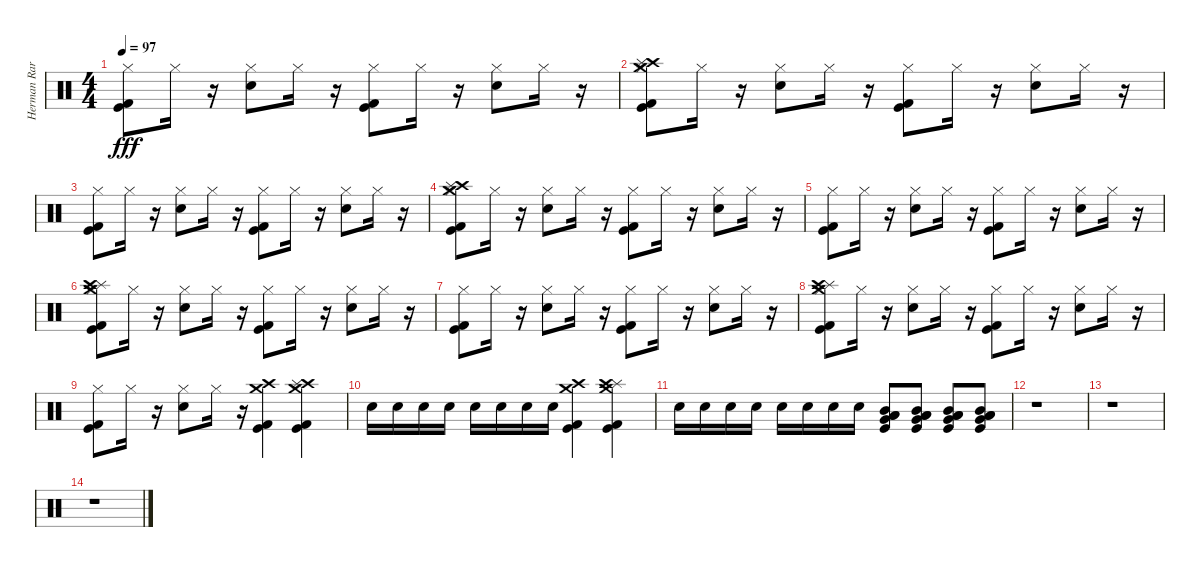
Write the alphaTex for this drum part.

\track ("Herman Rarebell - Drums and Percussion" "Herman Rar") {instrument percussion}
\staff {score}
\articulation defaults
\ts (4 4)
\tempo 97
\clef neutral
\ks c
("Hi-Hat (closed)" "Kick (hit)" "Kick (hit) 2").8{dy fff} "Hi-Hat (closed)".16 r.16 ("Snare (hit) 2" "Hi-Hat (closed)").8 "Hi-Hat (closed)".16 r.16 ("Kick (hit) 2" "Kick (hit)" "Hi-Hat (closed)").8 "Hi-Hat (closed)".16 r.16 ("Snare (hit) 2" "Hi-Hat (closed)").8 "Hi-Hat (closed)".16 r.16 |
("Hi-Hat (closed)" "Crash high (hit)" "Splash (hit)" "Crash medium (hit)" "Kick (hit)" "Kick (hit) 2").8 "Hi-Hat (closed)".16 r.16 ("Snare (hit) 2" "Hi-Hat (closed)").8 "Hi-Hat (closed)".16 r.16 ("Kick (hit) 2" "Kick (hit)" "Hi-Hat (closed)").8 "Hi-Hat (closed)".16 r.16 ("Snare (hit) 2" "Hi-Hat (closed)").8 "Hi-Hat (closed)".16 r.16 |
("Hi-Hat (closed)" "Kick (hit)" "Kick (hit) 2").8 "Hi-Hat (closed)".16 r.16 ("Snare (hit) 2" "Hi-Hat (closed)").8 "Hi-Hat (closed)".16 r.16 ("Kick (hit) 2" "Kick (hit)" "Hi-Hat (closed)").8 "Hi-Hat (closed)".16 r.16 ("Snare (hit) 2" "Hi-Hat (closed)").8 "Hi-Hat (closed)".16 r.16 |
("Hi-Hat (closed)" "Crash high (hit)" "Splash (hit)" "Crash medium (hit)" "Kick (hit)" "Kick (hit) 2").8 "Hi-Hat (closed)".16 r.16 ("Snare (hit) 2" "Hi-Hat (closed)").8 "Hi-Hat (closed)".16 r.16 ("Kick (hit) 2" "Kick (hit)" "Hi-Hat (closed)").8 "Hi-Hat (closed)".16 r.16 ("Snare (hit) 2" "Hi-Hat (closed)").8 "Hi-Hat (closed)".16 r.16 |
("Hi-Hat (closed)" "Kick (hit)" "Kick (hit) 2").8 "Hi-Hat (closed)".16 r.16 ("Snare (hit) 2" "Hi-Hat (closed)").8 "Hi-Hat (closed)".16 r.16 ("Kick (hit) 2" "Kick (hit)" "Hi-Hat (closed)").8 "Hi-Hat (closed)".16 r.16 ("Snare (hit) 2" "Hi-Hat (closed)").8 "Hi-Hat (closed)".16 r.16 |
("Kick (hit) 2" "Kick (hit)" "Crash medium (hit)" "Splash (hit)" "Crash high (hit)" "Hi-Hat (closed)").8 "Hi-Hat (closed)".16 r.16 ("Snare (hit) 2" "Hi-Hat (closed)").8 "Hi-Hat (closed)".16 r.16 ("Kick (hit) 2" "Kick (hit)" "Hi-Hat (closed)").8 "Hi-Hat (closed)".16 r.16 ("Snare (hit) 2" "Hi-Hat (closed)").8 "Hi-Hat (closed)".16 r.16 |
("Hi-Hat (closed)" "Kick (hit)" "Kick (hit) 2").8 "Hi-Hat (closed)".16 r.16 ("Snare (hit) 2" "Hi-Hat (closed)").8 "Hi-Hat (closed)".16 r.16 ("Kick (hit) 2" "Kick (hit)" "Hi-Hat (closed)").8 "Hi-Hat (closed)".16 r.16 ("Snare (hit) 2" "Hi-Hat (closed)").8 "Hi-Hat (closed)".16 r.16 |
("Hi-Hat (closed)" "Kick (hit)" "Kick (hit) 2" "Crash medium (hit)" "Splash (hit)" "Crash high (hit)").8 "Hi-Hat (closed)".16 r.16 ("Snare (hit) 2" "Hi-Hat (closed)").8 "Hi-Hat (closed)".16 r.16 ("Kick (hit) 2" "Kick (hit)" "Hi-Hat (closed)").8 "Hi-Hat (closed)".16 r.16 ("Snare (hit) 2" "Hi-Hat (closed)").8 "Hi-Hat (closed)".16 r.16 |
("Hi-Hat (closed)" "Kick (hit)" "Kick (hit) 2").8 "Hi-Hat (closed)".16 r.16 ("Hi-Hat (closed)" "Snare (hit) 2").8 "Hi-Hat (closed)".16 r.16 ("Kick (hit) 2" "Kick (hit)" "Crash high (hit)" "Crash medium (hit)").4 ("Kick (hit) 2" "Kick (hit)" "Crash high (hit)" "Crash medium (hit)" "Splash (hit)").4 |
"Snare (hit) 2".16 "Snare (hit) 2".16 "Snare (hit) 2".16 "Snare (hit) 2".16 "Snare (hit) 2".16 "Snare (hit) 2".16 "Snare (hit) 2".16 "Snare (hit) 2".16 ("Kick (hit) 2" "Kick (hit)" "Crash medium (hit)" "Crash high (hit)").4 ("Kick (hit)" "Kick (hit) 2" "Crash medium (hit)" "Splash (hit)" "Crash high (hit)").4 |
"Snare (hit) 2".16 "Snare (hit) 2".16 "Snare (hit) 2".16 "Snare (hit) 2".16 "Snare (hit) 2".16 "Snare (hit) 2".16 "Snare (hit) 2".16 "Snare (hit) 2".16 ("Mid Tom (hit)" "Low Tom (hit)" "Very Low Tom (hit)" "Low Floor Tom (hit)" "Kick (hit)").8 ("Mid Tom (hit)" "Low Tom (hit)" "Very Low Tom (hit)" "Low Floor Tom (hit)" "Kick (hit)").8 ("Mid Tom (hit)" "Low Tom (hit)" "Very Low Tom (hit)" "Low Floor Tom (hit)" "Kick (hit)").8 ("Mid Tom (hit)" "Low Tom (hit)" "Very Low Tom (hit)" "Low Floor Tom (hit)" "Kick (hit)").8 |
r.1 |
r.1 |
r.1
